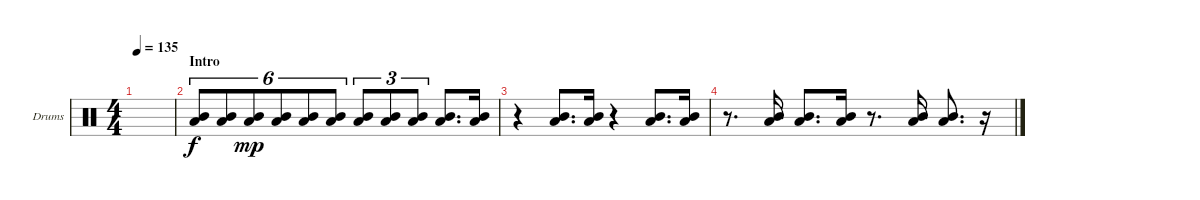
\bracketExtendMode groupsimilarinstruments
\firstSystemTrackNameOrientation horizontal
\otherSystemsTrackNameOrientation horizontal
\track ("Tom" "Drums") {instrument percussion}
\staff {score}
\articulation defaults
\ts (4 4)
\tempo 135
\clef neutral
\ks c
|
\section ("" "Intro")
("Low Tom (hit)" "Mid Tom (hit)").8{tu (6 4)} ("Low Tom (hit)" "Mid Tom (hit)").8{tu (6 4)} ("Low Tom (hit)" "Mid Tom (hit)").8{tu (6 4) dy mp} ("Low Tom (hit)" "Mid Tom (hit)").8{tu (6 4)} ("Low Tom (hit)" "Mid Tom (hit)").8{tu (6 4)} ("Low Tom (hit)" "Mid Tom (hit)").8{tu (6 4)} ("Low Tom (hit)" "Mid Tom (hit)").8{tu (3 2)} ("Low Tom (hit)" "Mid Tom (hit)").8{tu (3 2)} ("Low Tom (hit)" "Mid Tom (hit)").8{tu (3 2)} ("Low Tom (hit)" "Mid Tom (hit)").8{d} ("Low Tom (hit)" "Mid Tom (hit)").16 |
r.4 ("Low Tom (hit)" "Mid Tom (hit)").8{d} ("Low Tom (hit)" "Mid Tom (hit)").16 r.4 ("Low Tom (hit)" "Mid Tom (hit)").8{d} ("Low Tom (hit)" "Mid Tom (hit)").16 |
r.8{d} ("Low Tom (hit)" "Mid Tom (hit)").16 ("Low Tom (hit)" "Mid Tom (hit)").8{d} ("Low Tom (hit)" "Mid Tom (hit)").16 r.8{d} ("Low Tom (hit)" "Mid Tom (hit)").16 ("Low Tom (hit)" "Mid Tom (hit)").8{d} r.16 |
|
|
|
|
|
|
|
\scale
0.333333 |
\scale
0.333333 |
\scale
0.333333
